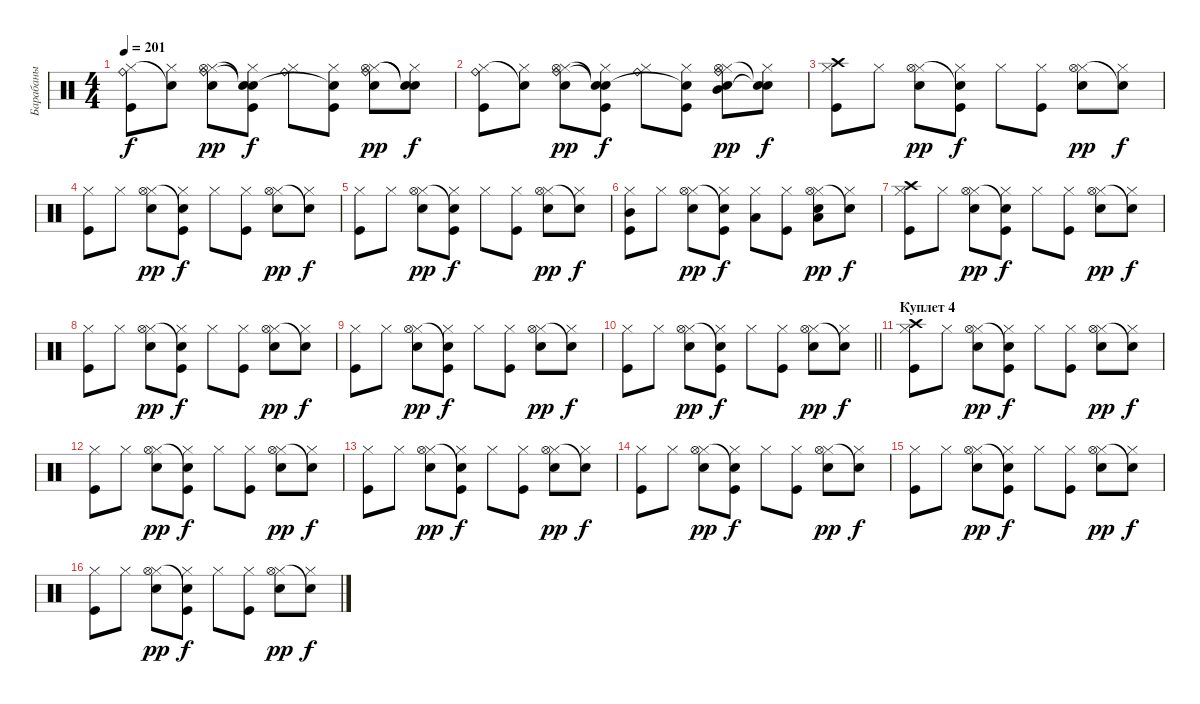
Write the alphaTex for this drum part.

\track ("Барабаны" "Барабаны") {instrument percussion}
\staff {score}
\articulation defaults
\ts (4 4)
\tempo 201
\clef neutral
\ks c
("Kick (hit)" "Hi-Hat (closed)" "Ride (bell)").8{dy f} ("Hi-Hat (closed)" "Snare (hit)"{t}).8 ("Snare (hit) 2" "Hi-Hat (closed)" "Hi-Hat (open)" "Ride (bell)").8{dy pp} ("Kick (hit)" "Hi-Hat (closed)" "Snare (hit)"{t} "Snare (hit)"{t}).8{dy f} ("Hi-Hat (closed)" "Ride (bell)").8 ("Kick (hit)" "Hi-Hat (closed)" "Snare (hit)"{t}).8 ("Snare (hit) 2" "Hi-Hat (closed)" "Hi-Hat (open)" "Ride (bell)").8{dy pp} ("Hi-Hat (closed)" "Snare (hit)"{t} "Snare (hit)"{t}).8{dy f} |
("Kick (hit)" "Hi-Hat (closed)" "Ride (bell)").8 ("Hi-Hat (closed)" "Snare (hit)"{t}).8 ("Snare (hit) 2" "Hi-Hat (closed)" "Hi-Hat (open)" "Ride (bell)").8{dy pp} ("Kick (hit)" "Hi-Hat (closed)" "Snare (hit)"{t} "Snare (hit)"{t}).8{dy f} ("Hi-Hat (closed)" "Ride (bell)").8 ("Kick (hit)" "Hi-Hat (closed)" "Snare (hit)"{t}).8 ("Snare (hit) 2" "Hi-Hat (closed)" "Mid Tom (hit)" "Hi-Hat (open)" "Ride (bell)").8{dy pp} ("Hi-Hat (closed)" "Snare (hit)"{t} "Snare (hit)"{t}).8{dy f} |
("Kick (hit)" "Hi-Hat (closed)" "Crash high (hit)").8 "Hi-Hat (closed)".8 ("Snare (hit) 2" "Hi-Hat (closed)" "Hi-Hat (open)").8{dy pp} ("Kick (hit)" "Hi-Hat (closed)" "Snare (hit)"{t}).8{dy f} "Hi-Hat (closed)".8 ("Kick (hit)" "Hi-Hat (closed)").8 ("Snare (hit) 2" "Hi-Hat (closed)" "Hi-Hat (open)").8{dy pp} ("Hi-Hat (closed)" "Snare (hit)"{t}).8{dy f} |
("Kick (hit)" "Hi-Hat (closed)").8 "Hi-Hat (closed)".8 ("Snare (hit) 2" "Hi-Hat (closed)" "Hi-Hat (open)").8{dy pp} ("Kick (hit)" "Hi-Hat (closed)" "Snare (hit)"{t}).8{dy f} "Hi-Hat (closed)".8 ("Kick (hit)" "Hi-Hat (closed)").8 ("Snare (hit) 2" "Hi-Hat (closed)" "Hi-Hat (open)").8{dy pp} ("Hi-Hat (closed)" "Snare (hit)"{t}).8{dy f} |
("Kick (hit)" "Hi-Hat (closed)").8 "Hi-Hat (closed)".8 ("Snare (hit) 2" "Hi-Hat (closed)" "Hi-Hat (open)").8{dy pp} ("Kick (hit)" "Hi-Hat (closed)" "Snare (hit)"{t}).8{dy f} "Hi-Hat (closed)".8 ("Kick (hit)" "Hi-Hat (closed)").8 ("Snare (hit) 2" "Hi-Hat (closed)" "Hi-Hat (open)").8{dy pp} ("Hi-Hat (closed)" "Snare (hit)"{t}).8{dy f} |
("Kick (hit)" "Hi-Hat (closed)" "Mid Tom (hit)").8 "Hi-Hat (closed)".8 ("Snare (hit) 2" "Hi-Hat (closed)" "Hi-Hat (open)").8{dy pp} ("Kick (hit)" "Hi-Hat (closed)" "Snare (hit)"{t}).8{dy f} ("Hi-Hat (closed)" "Low Tom (hit)").8 ("Kick (hit)" "Hi-Hat (closed)").8 ("Snare (hit) 2" "Hi-Hat (closed)" "Low Floor Tom (hit)" "Hi-Hat (open)").8{dy pp} ("Hi-Hat (closed)" "Snare (hit)"{t}).8{dy f} |
("Kick (hit)" "Hi-Hat (closed)" "Crash high (hit)").8 "Hi-Hat (closed)".8 ("Snare (hit) 2" "Hi-Hat (closed)" "Hi-Hat (open)").8{dy pp} ("Kick (hit)" "Hi-Hat (closed)" "Snare (hit)"{t}).8{dy f} "Hi-Hat (closed)".8 ("Kick (hit)" "Hi-Hat (closed)").8 ("Snare (hit) 2" "Hi-Hat (closed)" "Hi-Hat (open)").8{dy pp} ("Hi-Hat (closed)" "Snare (hit)"{t}).8{dy f} |
("Kick (hit)" "Hi-Hat (closed)").8 "Hi-Hat (closed)".8 ("Snare (hit) 2" "Hi-Hat (closed)" "Hi-Hat (open)").8{dy pp} ("Kick (hit)" "Hi-Hat (closed)" "Snare (hit)"{t}).8{dy f} "Hi-Hat (closed)".8 ("Kick (hit)" "Hi-Hat (closed)").8 ("Snare (hit) 2" "Hi-Hat (closed)" "Hi-Hat (open)").8{dy pp} ("Hi-Hat (closed)" "Snare (hit)"{t}).8{dy f} |
("Kick (hit)" "Hi-Hat (closed)").8 "Hi-Hat (closed)".8 ("Snare (hit) 2" "Hi-Hat (closed)" "Hi-Hat (open)").8{dy pp} ("Kick (hit)" "Hi-Hat (closed)" "Snare (hit)"{t}).8{dy f} "Hi-Hat (closed)".8 ("Kick (hit)" "Hi-Hat (closed)").8 ("Snare (hit) 2" "Hi-Hat (closed)" "Hi-Hat (open)").8{dy pp} ("Hi-Hat (closed)" "Snare (hit)"{t}).8{dy f} |
\barLineRight lightlight
("Kick (hit)" "Hi-Hat (closed)").8 "Hi-Hat (closed)".8 ("Snare (hit) 2" "Hi-Hat (closed)" "Hi-Hat (open)").8{dy pp} ("Kick (hit)" "Hi-Hat (closed)" "Snare (hit)"{t}).8{dy f} "Hi-Hat (closed)".8 ("Kick (hit)" "Hi-Hat (closed)").8 ("Snare (hit) 2" "Hi-Hat (closed)" "Hi-Hat (open)").8{dy pp} ("Hi-Hat (closed)" "Snare (hit)"{t}).8{dy f} |
\section ("" "Куплет 4")
("Kick (hit)" "Hi-Hat (closed)" "Crash high (hit)").8 "Hi-Hat (closed)".8 ("Snare (hit) 2" "Hi-Hat (closed)" "Hi-Hat (open)").8{dy pp} ("Kick (hit)" "Hi-Hat (closed)" "Snare (hit)"{t}).8{dy f} "Hi-Hat (closed)".8 ("Kick (hit)" "Hi-Hat (closed)").8 ("Snare (hit) 2" "Hi-Hat (closed)" "Hi-Hat (open)").8{dy pp} ("Hi-Hat (closed)" "Snare (hit)"{t}).8{dy f} |
("Kick (hit)" "Hi-Hat (closed)").8 "Hi-Hat (closed)".8 ("Snare (hit) 2" "Hi-Hat (closed)" "Hi-Hat (open)").8{dy pp} ("Kick (hit)" "Hi-Hat (closed)" "Snare (hit)"{t}).8{dy f} "Hi-Hat (closed)".8 ("Kick (hit)" "Hi-Hat (closed)").8 ("Snare (hit) 2" "Hi-Hat (closed)" "Hi-Hat (open)").8{dy pp} ("Hi-Hat (closed)" "Snare (hit)"{t}).8{dy f} |
("Kick (hit)" "Hi-Hat (closed)").8 "Hi-Hat (closed)".8 ("Snare (hit) 2" "Hi-Hat (closed)" "Hi-Hat (open)").8{dy pp} ("Kick (hit)" "Hi-Hat (closed)" "Snare (hit)"{t}).8{dy f} "Hi-Hat (closed)".8 ("Kick (hit)" "Hi-Hat (closed)").8 ("Snare (hit) 2" "Hi-Hat (closed)" "Hi-Hat (open)").8{dy pp} ("Hi-Hat (closed)" "Snare (hit)"{t}).8{dy f} |
("Kick (hit)" "Hi-Hat (closed)").8 "Hi-Hat (closed)".8 ("Snare (hit) 2" "Hi-Hat (closed)" "Hi-Hat (open)").8{dy pp} ("Kick (hit)" "Hi-Hat (closed)" "Snare (hit)"{t}).8{dy f} "Hi-Hat (closed)".8 ("Kick (hit)" "Hi-Hat (closed)").8 ("Snare (hit) 2" "Hi-Hat (closed)" "Hi-Hat (open)").8{dy pp} ("Hi-Hat (closed)" "Snare (hit)"{t}).8{dy f} |
("Kick (hit)" "Hi-Hat (closed)").8 "Hi-Hat (closed)".8 ("Snare (hit) 2" "Hi-Hat (closed)" "Hi-Hat (open)").8{dy pp} ("Kick (hit)" "Hi-Hat (closed)" "Snare (hit)"{t}).8{dy f} "Hi-Hat (closed)".8 ("Kick (hit)" "Hi-Hat (closed)").8 ("Snare (hit) 2" "Hi-Hat (closed)" "Hi-Hat (open)").8{dy pp} ("Hi-Hat (closed)" "Snare (hit)"{t}).8{dy f} |
("Kick (hit)" "Hi-Hat (closed)").8 "Hi-Hat (closed)".8 ("Snare (hit) 2" "Hi-Hat (closed)" "Hi-Hat (open)").8{dy pp} ("Kick (hit)" "Hi-Hat (closed)" "Snare (hit)"{t}).8{dy f} "Hi-Hat (closed)".8 ("Kick (hit)" "Hi-Hat (closed)").8 ("Snare (hit) 2" "Hi-Hat (closed)" "Hi-Hat (open)").8{dy pp} ("Hi-Hat (closed)" "Snare (hit)"{t}).8{dy f}
